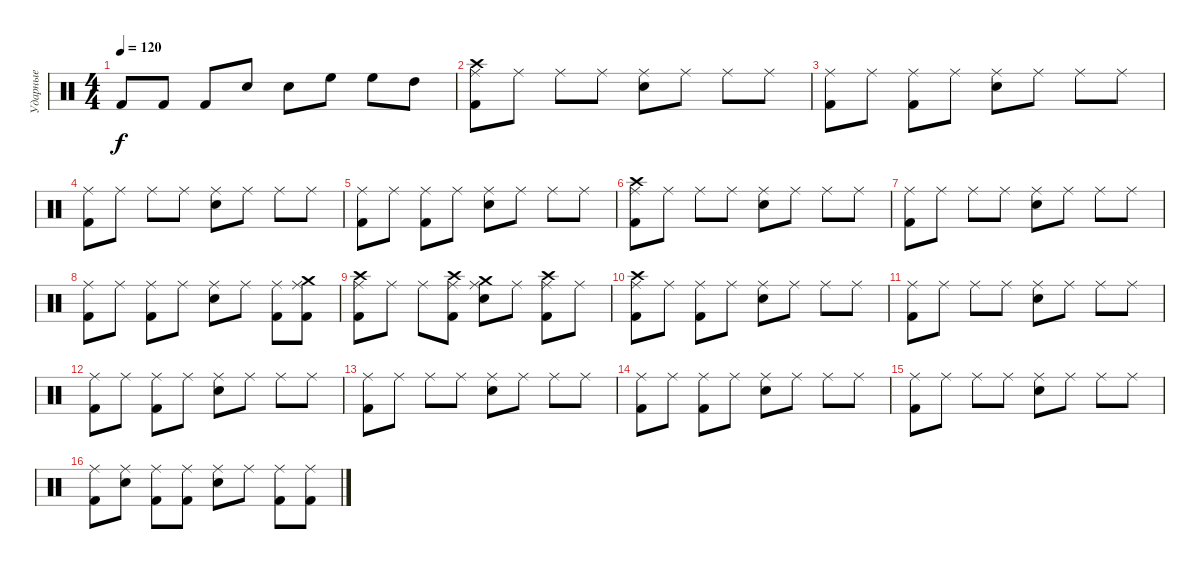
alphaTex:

\track ("Ударные" "Ударные") {instrument percussion}
\staff {score}
\articulation defaults
\ts (4 4)
\tempo 120
\clef neutral
\ks c "Kick (hit) 2".8{dy f} "Kick (hit) 2".8 "Kick (hit) 2".8 "Snare (hit) 2".8 "Snare (hit) 2".8 "High Floor Tom (hit)".8 "High Floor Tom (hit)".8 "High Tom (hit)".8
|
("Crash high (hit)" "Ride (middle)" "Kick (hit) 2").8 "Ride (middle)".8 "Ride (middle)".8 "Ride (middle)".8 ("Ride (middle)" "Snare (hit) 2").8 "Ride (middle)".8 "Ride (middle)".8 "Ride (middle)".8 |
("Ride (middle)" "Kick (hit) 2").8 "Ride (middle)".8 ("Ride (middle)" "Kick (hit) 2").8 "Ride (middle)".8 ("Ride (middle)" "Snare (hit) 2").8 "Ride (middle)".8 "Ride (middle)".8 "Ride (middle)".8 |
("Ride (middle)" "Kick (hit) 2").8 "Ride (middle)".8 "Ride (middle)".8 "Ride (middle)".8 ("Ride (middle)" "Snare (hit) 2").8 "Ride (middle)".8 "Ride (middle)".8 "Ride (middle)".8 |
("Ride (middle)" "Kick (hit) 2").8 "Ride (middle)".8 ("Ride (middle)" "Kick (hit) 2").8 "Ride (middle)".8 ("Ride (middle)" "Snare (hit) 2").8 "Ride (middle)".8 "Ride (middle)".8 "Ride (middle)".8 |
("Crash high (hit)" "Ride (middle)" "Kick (hit) 2").8 "Ride (middle)".8 "Ride (middle)".8 "Ride (middle)".8 ("Ride (middle)" "Snare (hit) 2").8 "Ride (middle)".8 "Ride (middle)".8 "Ride (middle)".8 |
("Ride (middle)" "Kick (hit) 2").8 "Ride (middle)".8 "Ride (middle)".8 "Ride (middle)".8 ("Ride (middle)" "Snare (hit) 2").8 "Ride (middle)".8 "Ride (middle)".8 "Ride (middle)".8 |
("Ride (middle)" "Kick (hit) 2").8 "Ride (middle)".8 ("Ride (middle)" "Kick (hit) 2").8 "Ride (middle)".8 ("Ride (middle)" "Snare (hit) 2").8 "Ride (middle)".8 ("Ride (middle)" "Kick (hit) 2").8 ("Crash medium (hit)" "Ride (middle)" "Kick (hit) 2").8 |
("Crash high (hit)" "Ride (middle)" "Kick (hit) 2").8 "Ride (middle)".8 "Ride (middle)".8 ("Crash high (hit)" "Ride (middle)" "Kick (hit) 2").8 ("Crash medium (hit)" "Ride (middle)" "Snare (hit) 2").8 "Ride (middle)".8 ("Crash high (hit)" "Ride (middle)" "Kick (hit) 2").8 "Ride (middle)".8 |
("Crash high (hit)" "Ride (middle)" "Kick (hit) 2").8 "Ride (middle)".8 ("Ride (middle)" "Kick (hit) 2").8 "Ride (middle)".8 ("Ride (middle)" "Snare (hit) 2").8 "Ride (middle)".8 "Ride (middle)".8 "Ride (middle)".8 |
("Ride (middle)" "Kick (hit) 2").8 "Ride (middle)".8 "Ride (middle)".8 "Ride (middle)".8 ("Ride (middle)" "Snare (hit) 2").8 "Ride (middle)".8 "Ride (middle)".8 "Ride (middle)".8 |
("Ride (middle)" "Kick (hit) 2").8 "Ride (middle)".8 ("Ride (middle)" "Kick (hit) 2").8 "Ride (middle)".8 ("Ride (middle)" "Snare (hit) 2").8 "Ride (middle)".8 "Ride (middle)".8 "Ride (middle)".8 |
("Ride (middle)" "Kick (hit) 2").8 "Ride (middle)".8 "Ride (middle)".8 "Ride (middle)".8 ("Ride (middle)" "Snare (hit) 2").8 "Ride (middle)".8 "Ride (middle)".8 "Ride (middle)".8 |
("Ride (middle)" "Kick (hit) 2").8 "Ride (middle)".8 ("Ride (middle)" "Kick (hit) 2").8 "Ride (middle)".8 ("Ride (middle)" "Snare (hit) 2").8 "Ride (middle)".8 "Ride (middle)".8 "Ride (middle)".8 |
("Ride (middle)" "Kick (hit) 2").8 "Ride (middle)".8 "Ride (middle)".8 "Ride (middle)".8 ("Ride (middle)" "Snare (hit) 2").8 "Ride (middle)".8 "Ride (middle)".8 "Ride (middle)".8 |
("Ride (middle)" "Kick (hit) 2").8 ("Ride (middle)" "Snare (hit) 2").8 ("Ride (middle)" "Kick (hit) 2").8 ("Ride (middle)" "Kick (hit) 2").8 ("Ride (middle)" "Snare (hit) 2").8 "Ride (middle)".8 ("Ride (middle)" "Kick (hit) 2").8 ("Ride (middle)" "Kick (hit) 2").8
